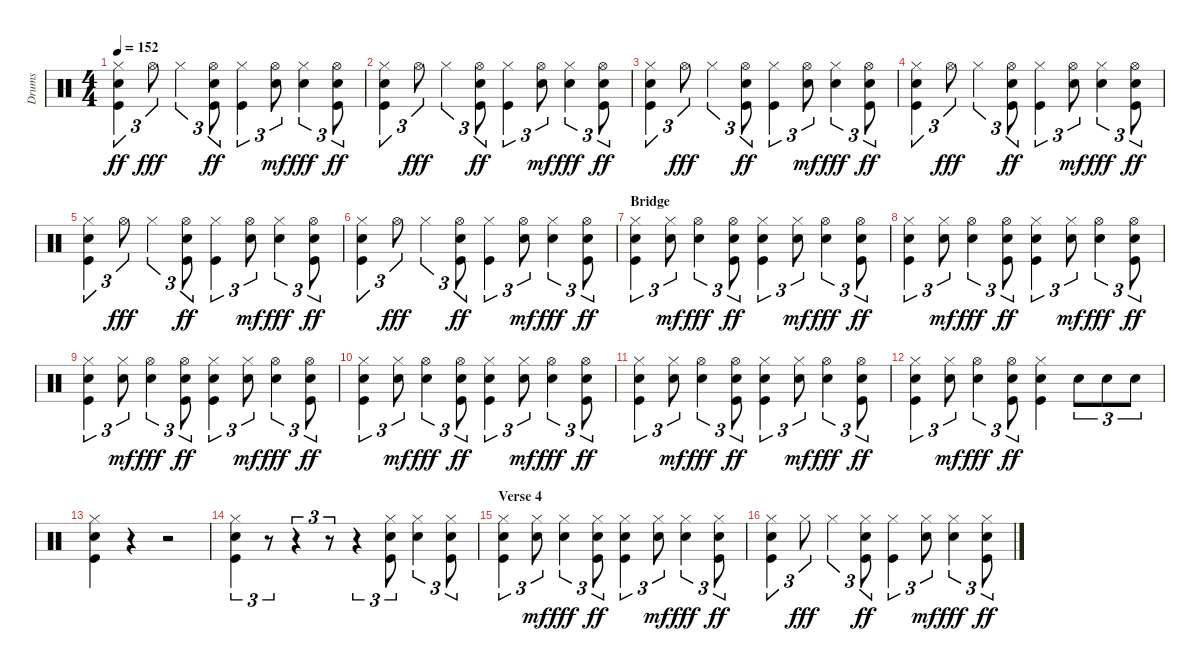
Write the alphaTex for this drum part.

\track ("Drums" "Drums") {instrument percussion}
\staff {score}
\articulation defaults
\ts (4 4)
\tempo 152
\clef neutral
\ks c
("Hi-Hat (closed)" "Snare (hit) 2" "Kick (hit)").4{tu (3 2) dy ff} "Hi-Hat (open)".8{tu (3 2) dy fff} "Hi-Hat (closed)".4{tu (3 2)} ("Hi-Hat (open)" "Snare (hit) 2" "Kick (hit)").8{tu (3 2) dy ff} ("Hi-Hat (closed)" "Kick (hit)").4{tu (3 2)} ("Hi-Hat (open)" "Snare (hit) 2").8{tu (3 2) dy mf} ("Hi-Hat (closed)" "Snare (hit) 2").4{tu (3 2) dy fff} ("Hi-Hat (open)" "Snare (hit) 2" "Kick (hit)").8{tu (3 2) dy ff} |
("Hi-Hat (closed)" "Snare (hit) 2" "Kick (hit)").4{tu (3 2)} "Hi-Hat (open)".8{tu (3 2) dy fff} "Hi-Hat (closed)".4{tu (3 2)} ("Hi-Hat (open)" "Snare (hit) 2" "Kick (hit)").8{tu (3 2) dy ff} ("Hi-Hat (closed)" "Kick (hit)").4{tu (3 2)} ("Hi-Hat (open)" "Snare (hit) 2").8{tu (3 2) dy mf} ("Hi-Hat (closed)" "Snare (hit) 2").4{tu (3 2) dy fff} ("Hi-Hat (open)" "Snare (hit) 2" "Kick (hit)").8{tu (3 2) dy ff} |
("Hi-Hat (closed)" "Snare (hit) 2" "Kick (hit)").4{tu (3 2)} "Hi-Hat (open)".8{tu (3 2) dy fff} "Hi-Hat (closed)".4{tu (3 2)} ("Hi-Hat (open)" "Snare (hit) 2" "Kick (hit)").8{tu (3 2) dy ff} ("Hi-Hat (closed)" "Kick (hit)").4{tu (3 2)} ("Hi-Hat (open)" "Snare (hit) 2").8{tu (3 2) dy mf} ("Hi-Hat (closed)" "Snare (hit) 2").4{tu (3 2) dy fff} ("Hi-Hat (open)" "Snare (hit) 2" "Kick (hit)").8{tu (3 2) dy ff} |
("Hi-Hat (closed)" "Snare (hit) 2" "Kick (hit)").4{tu (3 2)} "Hi-Hat (open)".8{tu (3 2) dy fff} "Hi-Hat (closed)".4{tu (3 2)} ("Hi-Hat (open)" "Snare (hit) 2" "Kick (hit)").8{tu (3 2) dy ff} ("Hi-Hat (closed)" "Kick (hit)").4{tu (3 2)} ("Hi-Hat (open)" "Snare (hit) 2").8{tu (3 2) dy mf} ("Hi-Hat (closed)" "Snare (hit) 2").4{tu (3 2) dy fff} ("Hi-Hat (open)" "Snare (hit) 2" "Kick (hit)").8{tu (3 2) dy ff} |
("Hi-Hat (closed)" "Snare (hit) 2" "Kick (hit)").4{tu (3 2)} "Hi-Hat (open)".8{tu (3 2) dy fff} "Hi-Hat (closed)".4{tu (3 2)} ("Hi-Hat (open)" "Snare (hit) 2" "Kick (hit)").8{tu (3 2) dy ff} ("Hi-Hat (closed)" "Kick (hit)").4{tu (3 2)} ("Hi-Hat (open)" "Snare (hit) 2").8{tu (3 2) dy mf} ("Hi-Hat (closed)" "Snare (hit) 2").4{tu (3 2) dy fff} ("Hi-Hat (open)" "Snare (hit) 2" "Kick (hit)").8{tu (3 2) dy ff} |
("Hi-Hat (closed)" "Snare (hit) 2" "Kick (hit)").4{tu (3 2)} "Hi-Hat (open)".8{tu (3 2) dy fff} "Hi-Hat (closed)".4{tu (3 2)} ("Hi-Hat (open)" "Snare (hit) 2" "Kick (hit)").8{tu (3 2) dy ff} ("Hi-Hat (closed)" "Kick (hit)").4{tu (3 2)} ("Hi-Hat (open)" "Snare (hit) 2").8{tu (3 2) dy mf} ("Hi-Hat (closed)" "Snare (hit) 2").4{tu (3 2) dy fff} ("Hi-Hat (open)" "Snare (hit) 2" "Kick (hit)").8{tu (3 2) dy ff} |
\section ("" "Bridge")
("Hi-Hat (closed)" "Snare (hit) 2" "Kick (hit)").4{tu (3 2)} ("Hi-Hat (closed)" "Snare (hit) 2").8{tu (3 2) dy mf} ("Hi-Hat (open)" "Snare (hit) 2").4{tu (3 2) dy fff} ("Hi-Hat (open)" "Snare (hit) 2" "Kick (hit)").8{tu (3 2) dy ff} ("Hi-Hat (closed)" "Snare (hit) 2" "Kick (hit)").4{tu (3 2)} ("Hi-Hat (closed)" "Snare (hit) 2").8{tu (3 2) dy mf} ("Hi-Hat (open)" "Snare (hit) 2").4{tu (3 2) dy fff} ("Hi-Hat (open)" "Snare (hit) 2" "Kick (hit)").8{tu (3 2) dy ff} |
("Hi-Hat (closed)" "Snare (hit) 2" "Kick (hit)").4{tu (3 2)} ("Hi-Hat (closed)" "Snare (hit) 2").8{tu (3 2) dy mf} ("Hi-Hat (open)" "Snare (hit) 2").4{tu (3 2) dy fff} ("Hi-Hat (open)" "Snare (hit) 2" "Kick (hit)").8{tu (3 2) dy ff} ("Hi-Hat (closed)" "Snare (hit) 2" "Kick (hit)").4{tu (3 2)} ("Hi-Hat (closed)" "Snare (hit) 2").8{tu (3 2) dy mf} ("Hi-Hat (open)" "Snare (hit) 2").4{tu (3 2) dy fff} ("Hi-Hat (open)" "Snare (hit) 2" "Kick (hit)").8{tu (3 2) dy ff} |
("Hi-Hat (closed)" "Snare (hit) 2" "Kick (hit)").4{tu (3 2)} ("Hi-Hat (closed)" "Snare (hit) 2").8{tu (3 2) dy mf} ("Hi-Hat (open)" "Snare (hit) 2").4{tu (3 2) dy fff} ("Hi-Hat (open)" "Snare (hit) 2" "Kick (hit)").8{tu (3 2) dy ff} ("Hi-Hat (closed)" "Snare (hit) 2" "Kick (hit)").4{tu (3 2)} ("Hi-Hat (closed)" "Snare (hit) 2").8{tu (3 2) dy mf} ("Hi-Hat (open)" "Snare (hit) 2").4{tu (3 2) dy fff} ("Hi-Hat (open)" "Snare (hit) 2" "Kick (hit)").8{tu (3 2) dy ff} |
("Hi-Hat (closed)" "Snare (hit) 2" "Kick (hit)").4{tu (3 2)} ("Hi-Hat (closed)" "Snare (hit) 2").8{tu (3 2) dy mf} ("Hi-Hat (open)" "Snare (hit) 2").4{tu (3 2) dy fff} ("Hi-Hat (open)" "Snare (hit) 2" "Kick (hit)").8{tu (3 2) dy ff} ("Hi-Hat (closed)" "Snare (hit) 2" "Kick (hit)").4{tu (3 2)} ("Hi-Hat (closed)" "Snare (hit) 2").8{tu (3 2) dy mf} ("Hi-Hat (open)" "Snare (hit) 2").4{tu (3 2) dy fff} ("Hi-Hat (open)" "Snare (hit) 2" "Kick (hit)").8{tu (3 2) dy ff} |
("Hi-Hat (closed)" "Snare (hit) 2" "Kick (hit)").4{tu (3 2)} ("Hi-Hat (closed)" "Snare (hit) 2").8{tu (3 2) dy mf} ("Hi-Hat (open)" "Snare (hit) 2").4{tu (3 2) dy fff} ("Hi-Hat (open)" "Snare (hit) 2" "Kick (hit)").8{tu (3 2) dy ff} ("Hi-Hat (closed)" "Snare (hit) 2" "Kick (hit)").4{tu (3 2)} ("Hi-Hat (closed)" "Snare (hit) 2").8{tu (3 2) dy mf} ("Hi-Hat (open)" "Snare (hit) 2").4{tu (3 2) dy fff} ("Hi-Hat (open)" "Snare (hit) 2" "Kick (hit)").8{tu (3 2) dy ff} |
("Hi-Hat (closed)" "Snare (hit) 2" "Kick (hit)").4{tu (3 2)} ("Hi-Hat (closed)" "Snare (hit) 2").8{tu (3 2) dy mf} ("Hi-Hat (open)" "Snare (hit) 2").4{tu (3 2) dy fff} ("Hi-Hat (open)" "Snare (hit) 2" "Kick (hit)").8{tu (3 2) dy ff} ("Hi-Hat (closed)" "Snare (hit) 2" "Kick (hit)").4 "Snare (hit) 2".8{tu (3 2)} "Snare (hit) 2".8{tu (3 2)} "Snare (hit) 2".8{tu (3 2)} |
("Hi-Hat (closed)" "Snare (hit) 2" "Kick (hit)").4 r.4 r.2 |
("Hi-Hat (closed)" "Snare (hit) 2" "Kick (hit)").4{tu (3 2)} r.8{tu (3 2)} r.4{tu (3 2)} r.8{tu (3 2)} r.4{tu (3 2)} ("Hi-Hat (closed)" "Snare (hit) 2" "Kick (hit)").8{tu (3 2)} ("Hi-Hat (closed)" "Snare (hit) 2").4{tu (3 2)} ("Hi-Hat (closed)" "Snare (hit) 2" "Kick (hit)").8{tu (3 2)} |
\section ("" "Verse 4")
("Hi-Hat (closed)" "Snare (hit) 2" "Kick (hit)").4{tu (3 2)} ("Hi-Hat (closed)" "Snare (hit) 2").8{tu (3 2) dy mf} ("Hi-Hat (closed)" "Snare (hit) 2").4{tu (3 2) dy fff} ("Hi-Hat (closed)" "Snare (hit) 2" "Kick (hit)").8{tu (3 2) dy ff} ("Hi-Hat (closed)" "Snare (hit) 2" "Kick (hit)").4{tu (3 2)} ("Hi-Hat (closed)" "Snare (hit) 2").8{tu (3 2) dy mf} ("Hi-Hat (closed)" "Snare (hit) 2").4{tu (3 2) dy fff} ("Hi-Hat (closed)" "Snare (hit) 2" "Kick (hit)").8{tu (3 2) dy ff} |
("Hi-Hat (closed)" "Snare (hit) 2" "Kick (hit)").4{tu (3 2)} "Hi-Hat (closed)".8{tu (3 2) dy fff} "Hi-Hat (closed)".4{tu (3 2)} ("Hi-Hat (closed)" "Snare (hit) 2" "Kick (hit)").8{tu (3 2) dy ff} ("Hi-Hat (closed)" "Kick (hit)").4{tu (3 2)} ("Hi-Hat (closed)" "Snare (hit) 2").8{tu (3 2) dy mf} ("Hi-Hat (closed)" "Snare (hit) 2").4{tu (3 2) dy fff} ("Hi-Hat (closed)" "Snare (hit) 2" "Kick (hit)").8{tu (3 2) dy ff}
